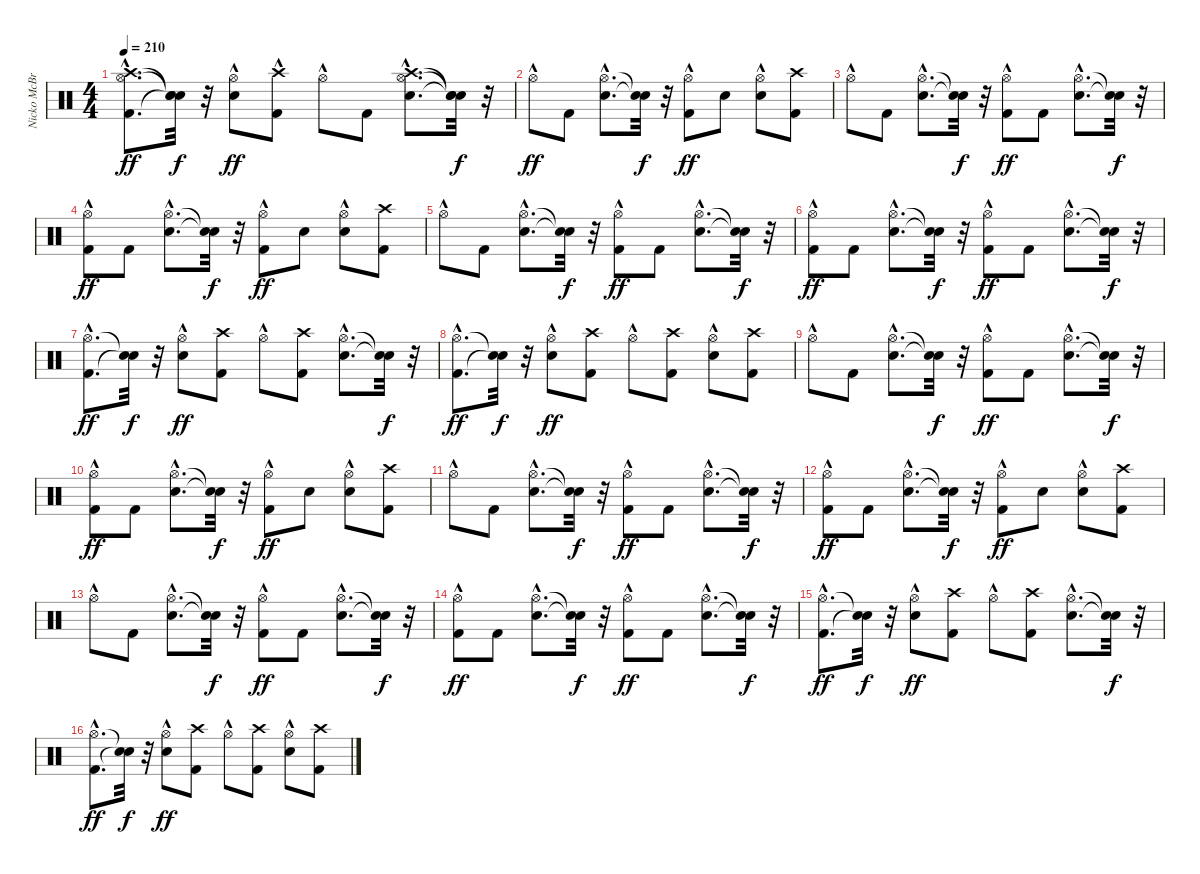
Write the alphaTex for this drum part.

\track ("Nicko McBrain" "Nicko McBr") {instrument percussion}
\staff {score}
\articulation defaults
\ts (4 4)
\tempo 210
\clef neutral
\ks c
("Kick (hit) 2"{hac} "Hi-Hat (open)"{hac} "Crash high (hit)"{hac}).8{d dy ff} ("Snare (hit)"{t} "Snare (hit)"{t} "Snare (hit)"{t}).32{dy f} r.32 ("Snare (hit) 2" "Hi-Hat (open)"{hac}).8{dy ff} ("Kick (hit) 2" "Crash high (hit)"{hac}).8 "Hi-Hat (open)"{hac}.8 "Kick (hit) 2".8 ("Snare (hit) 2"{hac} "Hi-Hat (open)"{hac} "Crash high (hit)"{hac}).8{d} ("Snare (hit)"{t} "Snare (hit)"{t} "Snare (hit)"{t}).32{dy f} r.32 |
"Hi-Hat (open)"{hac}.8{dy ff} "Kick (hit) 2".8 ("Snare (hit) 2"{hac} "Hi-Hat (open)"{hac}).8{d} ("Snare (hit)"{t} "Snare (hit)"{t}).32{dy f} r.32 ("Kick (hit) 2" "Hi-Hat (open)"{hac}).8{dy ff} "Snare (hit) 2".8 ("Snare (hit) 2" "Hi-Hat (open)"{hac}).8 ("Kick (hit) 2" "Crash high (hit)").8 |
"Hi-Hat (open)"{hac}.8 "Kick (hit) 2".8 ("Snare (hit) 2"{hac} "Hi-Hat (open)"{hac}).8{d} ("Snare (hit)"{t} "Snare (hit)"{t}).32{dy f} r.32 ("Kick (hit) 2" "Hi-Hat (open)"{hac}).8{dy ff} "Kick (hit) 2".8 ("Snare (hit) 2"{hac} "Hi-Hat (open)"{hac}).8{d} ("Snare (hit)"{t} "Snare (hit)"{t}).32{dy f} r.32 |
("Kick (hit) 2" "Hi-Hat (open)"{hac}).8{dy ff} "Kick (hit) 2".8 ("Snare (hit) 2"{hac} "Hi-Hat (open)"{hac}).8{d} ("Snare (hit)"{t} "Snare (hit)"{t}).32{dy f} r.32 ("Kick (hit) 2" "Hi-Hat (open)"{hac}).8{dy ff} "Snare (hit) 2".8 ("Snare (hit) 2" "Hi-Hat (open)"{hac}).8 ("Kick (hit) 2" "Crash high (hit)").8 |
"Hi-Hat (open)"{hac}.8 "Kick (hit) 2".8 ("Snare (hit) 2"{hac} "Hi-Hat (open)"{hac}).8{d} ("Snare (hit)"{t} "Snare (hit)"{t}).32{dy f} r.32 ("Kick (hit) 2" "Hi-Hat (open)"{hac}).8{dy ff} "Kick (hit) 2".8 ("Snare (hit) 2"{hac} "Hi-Hat (open)"{hac}).8{d} ("Snare (hit)"{t} "Snare (hit)"{t}).32{dy f} r.32 |
("Kick (hit) 2" "Hi-Hat (open)"{hac}).8{dy ff} "Kick (hit) 2".8 ("Snare (hit) 2"{hac} "Hi-Hat (open)"{hac}).8{d} ("Snare (hit)"{t} "Snare (hit)"{t}).32{dy f} r.32 ("Kick (hit) 2" "Hi-Hat (open)"{hac}).8{dy ff} "Kick (hit) 2".8 ("Snare (hit) 2"{hac} "Hi-Hat (open)"{hac}).8{d} ("Snare (hit)"{t} "Snare (hit)"{t}).32{dy f} r.32 |
("Kick (hit) 2"{hac} "Hi-Hat (open)"{hac}).8{d dy ff} ("Snare (hit)"{t} "Snare (hit)"{t}).32{dy f} r.32 ("Snare (hit) 2" "Hi-Hat (open)"{hac}).8{dy ff} ("Kick (hit) 2" "Crash high (hit)").8 "Hi-Hat (open)"{hac}.8 ("Kick (hit) 2" "Crash high (hit)").8 ("Snare (hit) 2"{hac} "Hi-Hat (open)"{hac}).8{d} ("Snare (hit)"{t} "Snare (hit)"{t}).32{dy f} r.32 |
("Kick (hit) 2"{hac} "Hi-Hat (open)"{hac}).8{d dy ff} ("Snare (hit)"{t} "Snare (hit)"{t}).32{dy f} r.32 ("Snare (hit) 2" "Hi-Hat (open)"{hac}).8{dy ff} ("Kick (hit) 2" "Crash high (hit)").8 "Hi-Hat (open)"{hac}.8 ("Kick (hit) 2" "Crash high (hit)").8 ("Snare (hit) 2" "Hi-Hat (open)"{hac}).8 ("Kick (hit) 2" "Crash high (hit)").8 |
"Hi-Hat (open)"{hac}.8 "Kick (hit) 2".8 ("Snare (hit) 2"{hac} "Hi-Hat (open)"{hac}).8{d} ("Snare (hit)"{t} "Snare (hit)"{t}).32{dy f} r.32 ("Kick (hit) 2" "Hi-Hat (open)"{hac}).8{dy ff} "Kick (hit) 2".8 ("Snare (hit) 2"{hac} "Hi-Hat (open)"{hac}).8{d} ("Snare (hit)"{t} "Snare (hit)"{t}).32{dy f} r.32 |
("Kick (hit) 2" "Hi-Hat (open)"{hac}).8{dy ff} "Kick (hit) 2".8 ("Snare (hit) 2"{hac} "Hi-Hat (open)"{hac}).8{d} ("Snare (hit)"{t} "Snare (hit)"{t}).32{dy f} r.32 ("Kick (hit) 2" "Hi-Hat (open)"{hac}).8{dy ff} "Snare (hit) 2".8 ("Snare (hit) 2" "Hi-Hat (open)"{hac}).8 ("Kick (hit) 2" "Crash high (hit)").8 |
"Hi-Hat (open)"{hac}.8 "Kick (hit) 2".8 ("Snare (hit) 2"{hac} "Hi-Hat (open)"{hac}).8{d} ("Snare (hit)"{t} "Snare (hit)"{t}).32{dy f} r.32 ("Kick (hit) 2" "Hi-Hat (open)"{hac}).8{dy ff} "Kick (hit) 2".8 ("Snare (hit) 2"{hac} "Hi-Hat (open)"{hac}).8{d} ("Snare (hit)"{t} "Snare (hit)"{t}).32{dy f} r.32 |
("Kick (hit) 2" "Hi-Hat (open)"{hac}).8{dy ff} "Kick (hit) 2".8 ("Snare (hit) 2"{hac} "Hi-Hat (open)"{hac}).8{d} ("Snare (hit)"{t} "Snare (hit)"{t}).32{dy f} r.32 ("Kick (hit) 2" "Hi-Hat (open)"{hac}).8{dy ff} "Snare (hit) 2".8 ("Snare (hit) 2" "Hi-Hat (open)"{hac}).8 ("Kick (hit) 2" "Crash high (hit)").8 |
"Hi-Hat (open)"{hac}.8 "Kick (hit) 2".8 ("Snare (hit) 2"{hac} "Hi-Hat (open)"{hac}).8{d} ("Snare (hit)"{t} "Snare (hit)"{t}).32{dy f} r.32 ("Kick (hit) 2" "Hi-Hat (open)"{hac}).8{dy ff} "Kick (hit) 2".8 ("Snare (hit) 2"{hac} "Hi-Hat (open)"{hac}).8{d} ("Snare (hit)"{t} "Snare (hit)"{t}).32{dy f} r.32 |
("Kick (hit) 2" "Hi-Hat (open)"{hac}).8{dy ff} "Kick (hit) 2".8 ("Snare (hit) 2"{hac} "Hi-Hat (open)"{hac}).8{d} ("Snare (hit)"{t} "Snare (hit)"{t}).32{dy f} r.32 ("Kick (hit) 2" "Hi-Hat (open)"{hac}).8{dy ff} "Kick (hit) 2".8 ("Snare (hit) 2"{hac} "Hi-Hat (open)"{hac}).8{d} ("Snare (hit)"{t} "Snare (hit)"{t}).32{dy f} r.32 |
("Kick (hit) 2"{hac} "Hi-Hat (open)"{hac}).8{d dy ff} ("Snare (hit)"{t} "Snare (hit)"{t}).32{dy f} r.32 ("Snare (hit) 2" "Hi-Hat (open)"{hac}).8{dy ff} ("Kick (hit) 2" "Crash high (hit)").8 "Hi-Hat (open)"{hac}.8 ("Kick (hit) 2" "Crash high (hit)").8 ("Snare (hit) 2"{hac} "Hi-Hat (open)"{hac}).8{d} ("Snare (hit)"{t} "Snare (hit)"{t}).32{dy f} r.32 |
("Kick (hit) 2"{hac} "Hi-Hat (open)"{hac}).8{d dy ff} ("Snare (hit)"{t} "Snare (hit)"{t}).32{dy f} r.32 ("Snare (hit) 2" "Hi-Hat (open)"{hac}).8{dy ff} ("Kick (hit) 2" "Crash high (hit)").8 "Hi-Hat (open)"{hac}.8 ("Kick (hit) 2" "Crash high (hit)").8 ("Snare (hit) 2" "Hi-Hat (open)"{hac}).8 ("Kick (hit) 2" "Crash high (hit)").8
